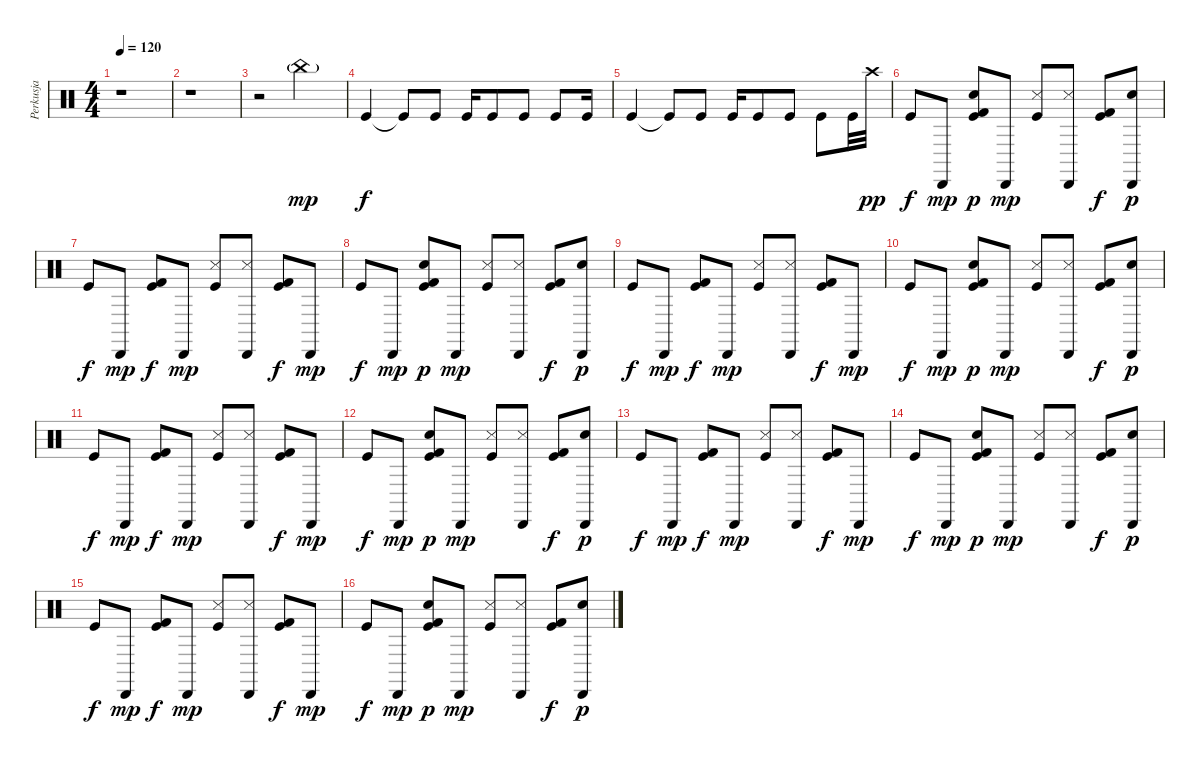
\track ("Perkusja" "Perkusja") {instrument percussion}
\staff {score}
\articulation defaults
\ts (4 4)
\tempo 120
\clef neutral
\ks c
r.1{dy mp} |
r.1 |
r.2 "China (hit)"{g}.2 |
"Kick (hit)".4{dy f} "Kick (hit)"{t}.8 "Kick (hit)".8 "Kick (hit)".16 "Kick (hit)".8 "Kick (hit)".8 "Kick (hit)".8 "Kick (hit)".16 |
"Kick (hit)".4 "Kick (hit)"{t}.8 "Kick (hit)".8 "Kick (hit)".16 "Kick (hit)".8 "Kick (hit)".8 "Kick (hit)".8 "Kick (hit)".32 "Crash high (hit)".32{dy pp} |
"Kick (hit)".8{dy f} "Cabasa (hit)".8{dy mp} ("Kick (hit)" "Kick (hit) 2" "Metronome (bell)").8{dy p} "Cabasa (hit)".8{dy mp} ("Kick (hit)" "Metronome (hit)").8 ("Metronome (hit)" "Cabasa (hit)").8 ("Kick (hit)" "Kick (hit) 2").8{dy f} ("Cabasa (hit)" "Metronome (bell)").8{dy p} |
"Kick (hit)".8{dy f} "Cabasa (hit)".8{dy mp} ("Kick (hit)" "Kick (hit) 2").8{dy f} "Cabasa (hit)".8{dy mp} ("Kick (hit)" "Metronome (hit)").8 ("Metronome (hit)" "Cabasa (hit)").8 ("Kick (hit)" "Kick (hit) 2").8{dy f} "Cabasa (hit)".8{dy mp} |
"Kick (hit)".8{dy f} "Cabasa (hit)".8{dy mp} ("Kick (hit)" "Kick (hit) 2" "Metronome (bell)").8{dy p} "Cabasa (hit)".8{dy mp} ("Kick (hit)" "Metronome (hit)").8 ("Metronome (hit)" "Cabasa (hit)").8 ("Kick (hit)" "Kick (hit) 2").8{dy f} ("Cabasa (hit)" "Metronome (bell)").8{dy p} |
"Kick (hit)".8{dy f} "Cabasa (hit)".8{dy mp} ("Kick (hit)" "Kick (hit) 2").8{dy f} "Cabasa (hit)".8{dy mp} ("Kick (hit)" "Metronome (hit)").8 ("Metronome (hit)" "Cabasa (hit)").8 ("Kick (hit)" "Kick (hit) 2").8{dy f} "Cabasa (hit)".8{dy mp} |
"Kick (hit)".8{dy f} "Cabasa (hit)".8{dy mp} ("Kick (hit)" "Kick (hit) 2" "Metronome (bell)").8{dy p} "Cabasa (hit)".8{dy mp} ("Kick (hit)" "Metronome (hit)").8 ("Metronome (hit)" "Cabasa (hit)").8 ("Kick (hit)" "Kick (hit) 2").8{dy f} ("Cabasa (hit)" "Metronome (bell)").8{dy p} |
"Kick (hit)".8{dy f} "Cabasa (hit)".8{dy mp} ("Kick (hit)" "Kick (hit) 2").8{dy f} "Cabasa (hit)".8{dy mp} ("Kick (hit)" "Metronome (hit)").8 ("Metronome (hit)" "Cabasa (hit)").8 ("Kick (hit)" "Kick (hit) 2").8{dy f} "Cabasa (hit)".8{dy mp} |
"Kick (hit)".8{dy f} "Cabasa (hit)".8{dy mp} ("Kick (hit)" "Kick (hit) 2" "Metronome (bell)").8{dy p} "Cabasa (hit)".8{dy mp} ("Kick (hit)" "Metronome (hit)").8 ("Metronome (hit)" "Cabasa (hit)").8 ("Kick (hit)" "Kick (hit) 2").8{dy f} ("Cabasa (hit)" "Metronome (bell)").8{dy p} |
"Kick (hit)".8{dy f} "Cabasa (hit)".8{dy mp} ("Kick (hit)" "Kick (hit) 2").8{dy f} "Cabasa (hit)".8{dy mp} ("Kick (hit)" "Metronome (hit)").8 ("Metronome (hit)" "Cabasa (hit)").8 ("Kick (hit)" "Kick (hit) 2").8{dy f} "Cabasa (hit)".8{dy mp} |
"Kick (hit)".8{dy f} "Cabasa (hit)".8{dy mp} ("Kick (hit)" "Kick (hit) 2" "Metronome (bell)").8{dy p} "Cabasa (hit)".8{dy mp} ("Kick (hit)" "Metronome (hit)").8 ("Metronome (hit)" "Cabasa (hit)").8 ("Kick (hit)" "Kick (hit) 2").8{dy f} ("Cabasa (hit)" "Metronome (bell)").8{dy p} |
"Kick (hit)".8{dy f} "Cabasa (hit)".8{dy mp} ("Kick (hit)" "Kick (hit) 2").8{dy f} "Cabasa (hit)".8{dy mp} ("Kick (hit)" "Metronome (hit)").8 ("Metronome (hit)" "Cabasa (hit)").8 ("Kick (hit)" "Kick (hit) 2").8{dy f} "Cabasa (hit)".8{dy mp} |
"Kick (hit)".8{dy f} "Cabasa (hit)".8{dy mp} ("Kick (hit)" "Kick (hit) 2" "Metronome (bell)").8{dy p} "Cabasa (hit)".8{dy mp} ("Kick (hit)" "Metronome (hit)").8 ("Metronome (hit)" "Cabasa (hit)").8 ("Kick (hit)" "Kick (hit) 2").8{dy f} ("Cabasa (hit)" "Metronome (bell)").8{dy p}
